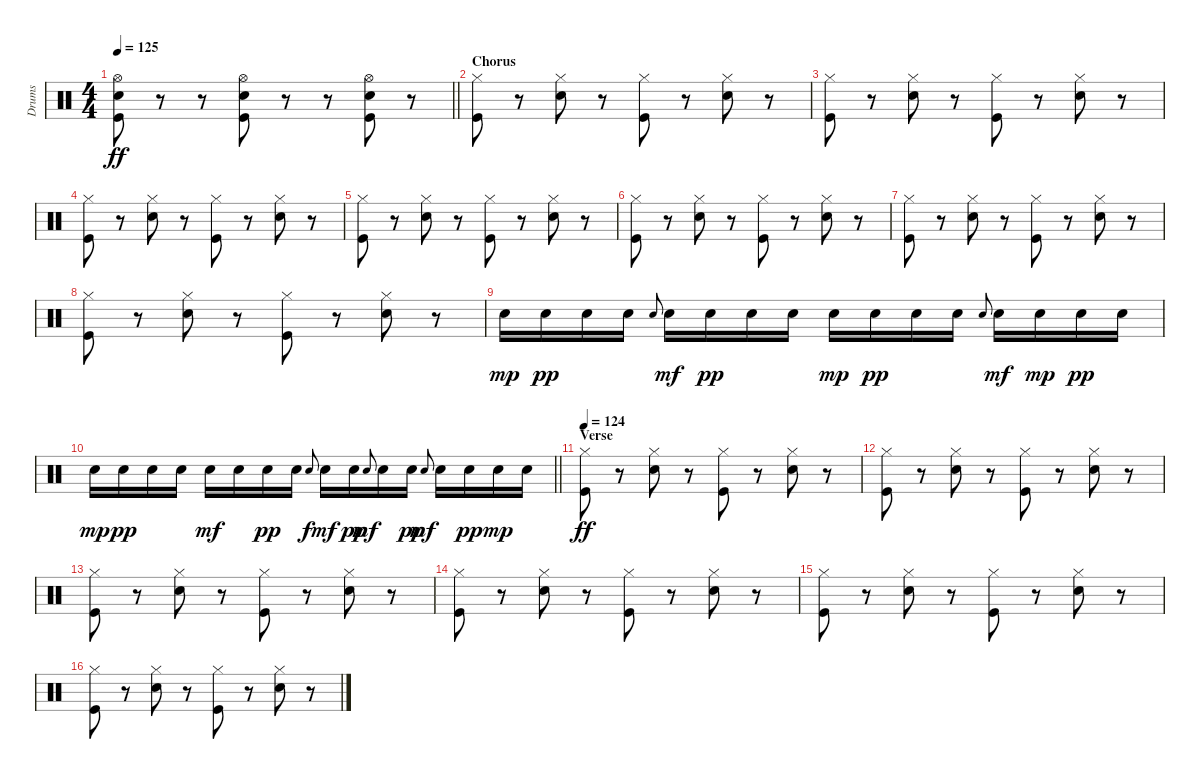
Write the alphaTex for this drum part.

\track ("Drums" "Drums") {instrument percussion}
\staff {score}
\articulation defaults
\ts (4 4)
\tempo 125
\clef neutral
\barLineRight lightlight
\ks c
("Hi-Hat (open)" "Snare (hit) 2" "Kick (hit)").8{dy ff} r.8 r.8 ("Hi-Hat (open)" "Snare (hit) 2" "Kick (hit)").8 r.8 r.8 ("Hi-Hat (open)" "Snare (hit) 2" "Kick (hit)").8 r.8 |
\section ("" "Chorus")
("Hi-Hat (closed)" "Kick (hit)").8 r.8 ("Hi-Hat (closed)" "Snare (hit) 2").8 r.8 ("Hi-Hat (closed)" "Kick (hit)").8 r.8 ("Hi-Hat (closed)" "Snare (hit) 2").8 r.8 |
("Hi-Hat (closed)" "Kick (hit)").8 r.8 ("Hi-Hat (closed)" "Snare (hit) 2").8 r.8 ("Hi-Hat (closed)" "Kick (hit)").8 r.8 ("Hi-Hat (closed)" "Snare (hit) 2").8 r.8 |
("Hi-Hat (closed)" "Kick (hit)").8 r.8 ("Hi-Hat (closed)" "Snare (hit) 2").8 r.8 ("Hi-Hat (closed)" "Kick (hit)").8 r.8 ("Hi-Hat (closed)" "Snare (hit) 2").8 r.8 |
("Hi-Hat (closed)" "Kick (hit)").8 r.8 ("Hi-Hat (closed)" "Snare (hit) 2").8 r.8 ("Hi-Hat (closed)" "Kick (hit)").8 r.8 ("Hi-Hat (closed)" "Snare (hit) 2").8 r.8 |
("Hi-Hat (closed)" "Kick (hit)").8 r.8 ("Hi-Hat (closed)" "Snare (hit) 2").8 r.8 ("Hi-Hat (closed)" "Kick (hit)").8 r.8 ("Hi-Hat (closed)" "Snare (hit) 2").8 r.8 |
("Hi-Hat (closed)" "Kick (hit)").8 r.8 ("Hi-Hat (closed)" "Snare (hit) 2").8 r.8 ("Hi-Hat (closed)" "Kick (hit)").8 r.8 ("Hi-Hat (closed)" "Snare (hit) 2").8 r.8 |
("Hi-Hat (closed)" "Kick (hit)").8 r.8 ("Hi-Hat (closed)" "Snare (hit) 2").8 r.8 ("Hi-Hat (closed)" "Kick (hit)").8 r.8 ("Hi-Hat (closed)" "Snare (hit) 2").8 r.8 |
"Snare (hit) 2".16{dy mp volume 5} "Snare (hit) 2".16{dy pp} "Snare (hit) 2".16 "Snare (hit) 2".16 "Snare (hit) 2".8{gr onbeat} "Snare (hit) 2".16{dy mf} "Snare (hit) 2".16{dy pp} "Snare (hit) 2".16 "Snare (hit) 2".16 "Snare (hit) 2".16{dy mp} "Snare (hit) 2".16{dy pp} "Snare (hit) 2".16 "Snare (hit) 2".16 "Snare (hit) 2".8{gr onbeat} "Snare (hit) 2".16{dy mf} "Snare (hit) 2".16{dy mp} "Snare (hit) 2".16{dy pp} "Snare (hit) 2".16 |
\barLineRight lightlight "Snare (hit) 2".16{dy mp} "Snare (hit) 2".16{dy pp} "Snare (hit) 2".16 "Snare (hit) 2".16 "Snare (hit) 2".16{dy mf} "Snare (hit) 2".16 "Snare (hit) 2".16{dy pp} "Snare (hit) 2".16 "Snare (hit) 2".8{gr onbeat dy f} "Snare (hit) 2".16{dy mf} "Snare (hit) 2".16{dy pp} "Snare (hit) 2".8{gr onbeat dy mf} "Snare (hit) 2".16 "Snare (hit) 2".16{dy pp} "Snare (hit) 2".8{gr onbeat dy mf} "Snare (hit) 2".16 "Snare (hit) 2".16{dy pp} "Snare (hit) 2".16{dy mp} "Snare (hit) 2".16
|
\section ("" "Verse")
\tempo 124
("Hi-Hat (closed)" "Kick (hit)").8{dy ff volume 9} r.8 ("Hi-Hat (closed)" "Snare (hit) 2").8 r.8 ("Hi-Hat (closed)" "Kick (hit)").8 r.8 ("Hi-Hat (closed)" "Snare (hit) 2").8 r.8 |
("Hi-Hat (closed)" "Kick (hit)").8 r.8 ("Hi-Hat (closed)" "Snare (hit) 2").8 r.8 ("Hi-Hat (closed)" "Kick (hit)").8 r.8 ("Hi-Hat (closed)" "Snare (hit) 2").8 r.8 |
("Hi-Hat (closed)" "Kick (hit)").8 r.8 ("Hi-Hat (closed)" "Snare (hit) 2").8 r.8 ("Hi-Hat (closed)" "Kick (hit)").8 r.8 ("Hi-Hat (closed)" "Snare (hit) 2").8 r.8 |
("Hi-Hat (closed)" "Kick (hit)").8 r.8 ("Hi-Hat (closed)" "Snare (hit) 2").8 r.8 ("Hi-Hat (closed)" "Kick (hit)").8 r.8 ("Hi-Hat (closed)" "Snare (hit) 2").8 r.8 |
("Hi-Hat (closed)" "Kick (hit)").8 r.8 ("Hi-Hat (closed)" "Snare (hit) 2").8 r.8 ("Hi-Hat (closed)" "Kick (hit)").8 r.8 ("Hi-Hat (closed)" "Snare (hit) 2").8 r.8 |
("Hi-Hat (closed)" "Kick (hit)").8 r.8 ("Hi-Hat (closed)" "Snare (hit) 2").8 r.8 ("Hi-Hat (closed)" "Kick (hit)").8 r.8 ("Hi-Hat (closed)" "Snare (hit) 2").8 r.8
